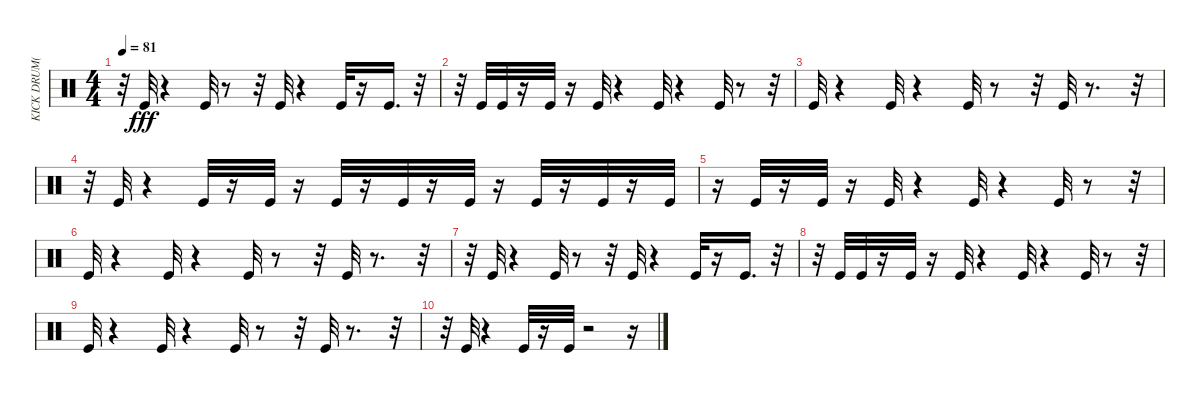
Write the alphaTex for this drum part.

\track ("KICK DRUM(ACOU)" "KICK DRUM(") {instrument percussion}
\staff {score}
\articulation defaults
\ts (4 4)
\tempo 81
\clef neutral
\ks c
r.32{dy fff} "Kick (hit)".32 r.4 "Kick (hit)".32 r.8 r.32 "Kick (hit)".32 r.4 "Kick (hit)".32 r.16 "Kick (hit)".16{d} r.32 |
r.32 "Kick (hit)".32 "Kick (hit)".32 r.16 "Kick (hit)".32 r.16 "Kick (hit)".32 r.4 "Kick (hit)".32 r.4 "Kick (hit)".32 r.8 r.32 |
"Kick (hit)".32 r.4 "Kick (hit)".32 r.4 "Kick (hit)".32 r.8 r.32 "Kick (hit)".32 r.8{d} r.32 |
r.32 "Kick (hit)".32 r.4 "Kick (hit)".32 r.16 "Kick (hit)".32 r.16 "Kick (hit)".32 r.16 "Kick (hit)".32 r.16 "Kick (hit)".32 r.16 "Kick (hit)".32 r.16 "Kick (hit)".32 r.16 "Kick (hit)".32 |
r.16 "Kick (hit)".32 r.16 "Kick (hit)".32 r.16 "Kick (hit)".32 r.4 "Kick (hit)".32 r.4 "Kick (hit)".32 r.8 r.32 |
"Kick (hit)".32 r.4 "Kick (hit)".32 r.4 "Kick (hit)".32 r.8 r.32 "Kick (hit)".32 r.8{d} r.32 |
r.32 "Kick (hit)".32 r.4 "Kick (hit)".32 r.8 r.32 "Kick (hit)".32 r.4 "Kick (hit)".32 r.16 "Kick (hit)".16{d} r.32 |
r.32 "Kick (hit)".32 "Kick (hit)".32 r.16 "Kick (hit)".32 r.16 "Kick (hit)".32 r.4 "Kick (hit)".32 r.4 "Kick (hit)".32 r.8 r.32 |
"Kick (hit)".32 r.4 "Kick (hit)".32 r.4 "Kick (hit)".32 r.8 r.32 "Kick (hit)".32 r.8{d} r.32 |
r.32 "Kick (hit)".32 r.4 "Kick (hit)".32 r.16 "Kick (hit)".32 r.2 r.16
